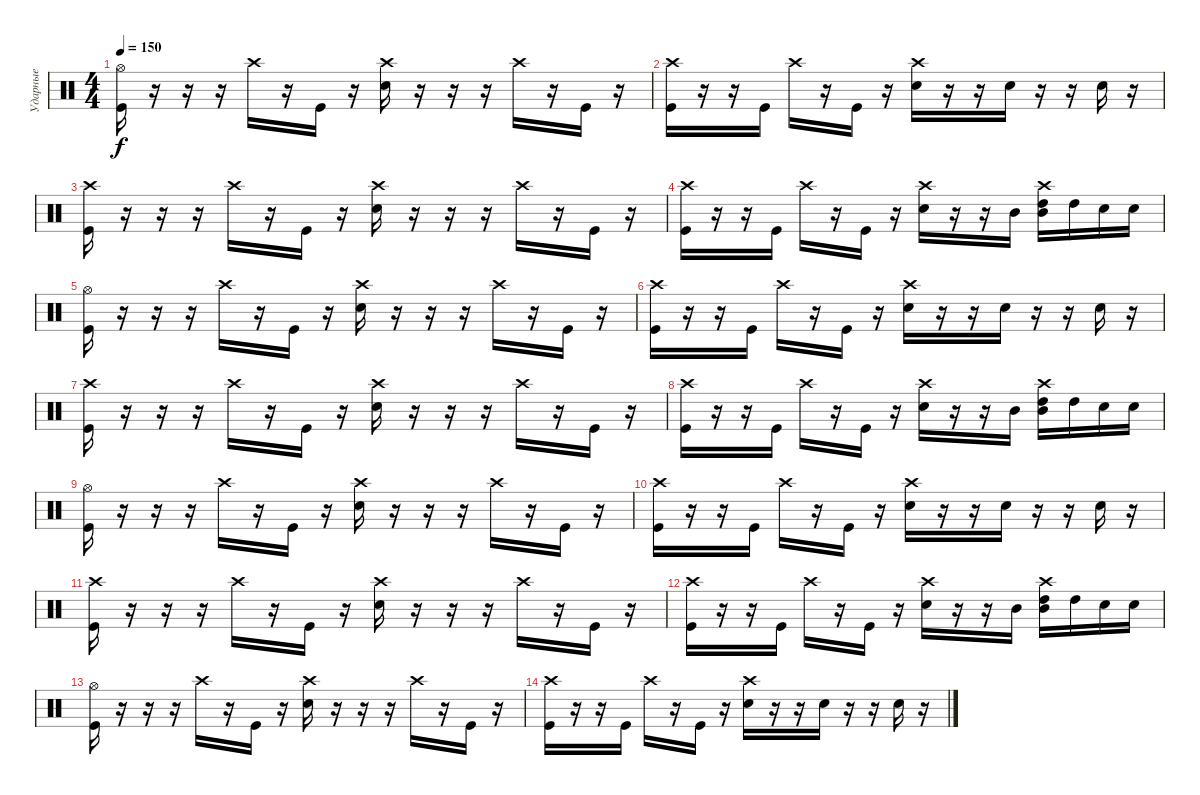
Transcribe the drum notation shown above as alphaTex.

\track ("Ударные" "Ударные") {instrument percussion}
\staff {score}
\articulation defaults
\ts (4 4)
\tempo 150
\clef neutral
\ks c
("Hi-Hat (open)" "Kick (hit)").16{dy f} r.16 r.16 r.16 "Crash high (hit)".16 r.16 "Kick (hit)".16 r.16 ("Crash high (hit)" "Electric Snare (hit)").16 r.16 r.16 r.16 "Crash high (hit)".16 r.16 "Kick (hit)".16 r.16 |
("Crash high (hit)" "Kick (hit)").16 r.16 r.16 "Kick (hit)".16 "Crash high (hit)".16 r.16 "Kick (hit)".16 r.16 ("Crash high (hit)" "Electric Snare (hit)").16 r.16 r.16 "Electric Snare (hit)".16 r.16 r.16 "Electric Snare (hit)".16 r.16 |
("Crash high (hit)" "Kick (hit)").16 r.16 r.16 r.16 "Crash high (hit)".16 r.16 "Kick (hit)".16 r.16 ("Crash high (hit)" "Electric Snare (hit)").16 r.16 r.16 r.16 "Crash high (hit)".16 r.16 "Kick (hit)".16 r.16 |
("Crash high (hit)" "Kick (hit)").16 r.16 r.16 "Kick (hit)".16 "Crash high (hit)".16 r.16 "Kick (hit)".16 r.16 ("Crash high (hit)" "Electric Snare (hit)").16 r.16 r.16 "Mid Tom (hit)".16 ("Crash high (hit)" "Mid Tom (hit)" "High Tom (hit)").16 "High Tom (hit)".16 "Electric Snare (hit)".16 "Electric Snare (hit)".16 |
("Hi-Hat (open)" "Kick (hit)").16 r.16 r.16 r.16 "Crash high (hit)".16 r.16 "Kick (hit)".16 r.16 ("Crash high (hit)" "Electric Snare (hit)").16 r.16 r.16 r.16 "Crash high (hit)".16 r.16 "Kick (hit)".16 r.16 |
("Crash high (hit)" "Kick (hit)").16 r.16 r.16 "Kick (hit)".16 "Crash high (hit)".16 r.16 "Kick (hit)".16 r.16 ("Crash high (hit)" "Electric Snare (hit)").16 r.16 r.16 "Electric Snare (hit)".16 r.16 r.16 "Electric Snare (hit)".16 r.16 |
("Crash high (hit)" "Kick (hit)").16 r.16 r.16 r.16 "Crash high (hit)".16 r.16 "Kick (hit)".16 r.16 ("Crash high (hit)" "Electric Snare (hit)").16 r.16 r.16 r.16 "Crash high (hit)".16 r.16 "Kick (hit)".16 r.16 |
("Crash high (hit)" "Kick (hit)").16 r.16 r.16 "Kick (hit)".16 "Crash high (hit)".16 r.16 "Kick (hit)".16 r.16 ("Crash high (hit)" "Electric Snare (hit)").16 r.16 r.16 "Mid Tom (hit)".16 ("Crash high (hit)" "Mid Tom (hit)" "High Tom (hit)").16 "High Tom (hit)".16 "Electric Snare (hit)".16 "Electric Snare (hit)".16 |
("Hi-Hat (open)" "Kick (hit)").16 r.16 r.16 r.16 "Crash high (hit)".16 r.16 "Kick (hit)".16 r.16 ("Crash high (hit)" "Electric Snare (hit)").16 r.16 r.16 r.16 "Crash high (hit)".16 r.16 "Kick (hit)".16 r.16 |
("Crash high (hit)" "Kick (hit)").16 r.16 r.16 "Kick (hit)".16 "Crash high (hit)".16 r.16 "Kick (hit)".16 r.16 ("Crash high (hit)" "Electric Snare (hit)").16 r.16 r.16 "Electric Snare (hit)".16 r.16 r.16 "Electric Snare (hit)".16 r.16 |
("Crash high (hit)" "Kick (hit)").16 r.16 r.16 r.16 "Crash high (hit)".16 r.16 "Kick (hit)".16 r.16 ("Crash high (hit)" "Electric Snare (hit)").16 r.16 r.16 r.16 "Crash high (hit)".16 r.16 "Kick (hit)".16 r.16 |
("Crash high (hit)" "Kick (hit)").16 r.16 r.16 "Kick (hit)".16 "Crash high (hit)".16 r.16 "Kick (hit)".16 r.16 ("Crash high (hit)" "Electric Snare (hit)").16 r.16 r.16 "Mid Tom (hit)".16 ("Crash high (hit)" "Mid Tom (hit)" "High Tom (hit)").16 "High Tom (hit)".16 "Electric Snare (hit)".16 "Electric Snare (hit)".16 |
("Hi-Hat (open)" "Kick (hit)").16 r.16 r.16 r.16 "Crash high (hit)".16 r.16 "Kick (hit)".16 r.16 ("Crash high (hit)" "Electric Snare (hit)").16 r.16 r.16 r.16 "Crash high (hit)".16 r.16 "Kick (hit)".16 r.16 |
("Crash high (hit)" "Kick (hit)").16 r.16 r.16 "Kick (hit)".16 "Crash high (hit)".16 r.16 "Kick (hit)".16 r.16 ("Crash high (hit)" "Electric Snare (hit)").16 r.16 r.16 "Electric Snare (hit)".16 r.16 r.16 "Electric Snare (hit)".16 r.16
